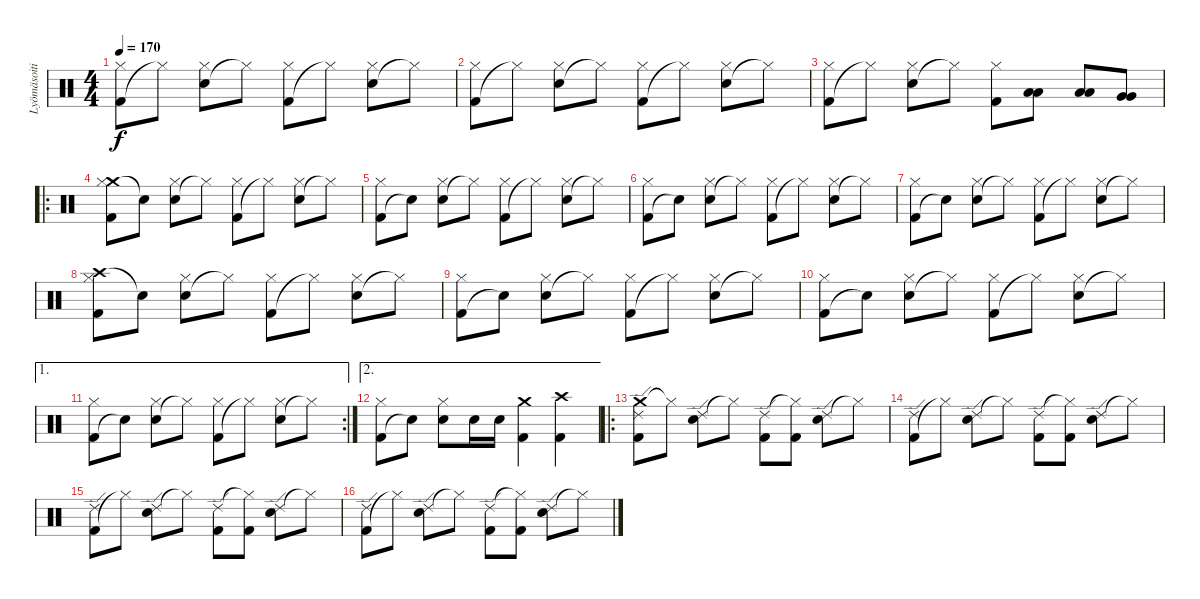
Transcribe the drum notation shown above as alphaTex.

\track ("Lyömäsoitin" "Lyömäsoiti") {instrument percussion}
\staff {score}
\articulation defaults
\ts (4 4)
\tempo 170
\clef neutral
\ks c
("Kick (hit) 2" "Hi-Hat (closed)").8{dy f} "Hi-Hat (closed)"{t}.8 ("Electric Snare (hit)" "Hi-Hat (closed)").8 "Hi-Hat (closed)"{t}.8 ("Kick (hit) 2" "Hi-Hat (closed)").8 "Hi-Hat (closed)"{t}.8 ("Electric Snare (hit)" "Hi-Hat (closed)").8 "Hi-Hat (closed)"{t}.8 |
("Kick (hit) 2" "Hi-Hat (closed)").8 "Hi-Hat (closed)"{t}.8 ("Electric Snare (hit)" "Hi-Hat (closed)").8 "Hi-Hat (closed)"{t}.8 ("Kick (hit) 2" "Hi-Hat (closed)").8 "Hi-Hat (closed)"{t}.8 ("Electric Snare (hit)" "Hi-Hat (closed)").8 "Hi-Hat (closed)"{t}.8 |
("Kick (hit) 2" "Hi-Hat (closed)").8 "Hi-Hat (closed)"{t}.8 ("Electric Snare (hit)" "Hi-Hat (closed)").8 "Hi-Hat (closed)"{t}.8 ("Kick (hit) 2" "Hi-Hat (closed)").8 ("Low Tom (hit)" "Low Tom (hit)").8 ("Low Tom (hit)" "Low Tom (hit)").8 ("Very Low Tom (hit)" "Very Low Tom (hit)").8 |
\ro
("Crash medium (hit)" "Kick (hit) 2" "Hi-Hat (closed)").8 "Snare (hit)"{t}.8 ("Electric Snare (hit)" "Hi-Hat (closed)").8 "Hi-Hat (closed)"{t}.8 ("Kick (hit) 2" "Hi-Hat (closed)").8 "Hi-Hat (closed)"{t}.8 ("Electric Snare (hit)" "Hi-Hat (closed)").8 "Hi-Hat (closed)"{t}.8 |
("Kick (hit) 2" "Hi-Hat (closed)").8 "Snare (hit)"{t}.8 ("Electric Snare (hit)" "Hi-Hat (closed)").8 "Hi-Hat (closed)"{t}.8 ("Kick (hit) 2" "Hi-Hat (closed)").8 "Hi-Hat (closed)"{t}.8 ("Electric Snare (hit)" "Hi-Hat (closed)").8 "Hi-Hat (closed)"{t}.8 |
("Kick (hit) 2" "Hi-Hat (closed)").8 "Snare (hit)"{t}.8 ("Electric Snare (hit)" "Hi-Hat (closed)").8 "Hi-Hat (closed)"{t}.8 ("Kick (hit) 2" "Hi-Hat (closed)").8 "Hi-Hat (closed)"{t}.8 ("Electric Snare (hit)" "Hi-Hat (closed)").8 "Hi-Hat (closed)"{t}.8 |
("Kick (hit) 2" "Hi-Hat (closed)").8 "Snare (hit)"{t}.8 ("Electric Snare (hit)" "Hi-Hat (closed)").8 "Hi-Hat (closed)"{t}.8 ("Kick (hit) 2" "Hi-Hat (closed)").8 "Hi-Hat (closed)"{t}.8 ("Electric Snare (hit)" "Hi-Hat (closed)").8 "Hi-Hat (closed)"{t}.8 |
("Crash high (hit)" "Kick (hit) 2" "Hi-Hat (closed)").8 "Snare (hit)"{t}.8 ("Electric Snare (hit)" "Hi-Hat (closed)").8 "Hi-Hat (closed)"{t}.8 ("Kick (hit) 2" "Hi-Hat (closed)").8 "Hi-Hat (closed)"{t}.8 ("Electric Snare (hit)" "Hi-Hat (closed)").8 "Hi-Hat (closed)"{t}.8 |
("Kick (hit) 2" "Hi-Hat (closed)").8 "Snare (hit)"{t}.8 ("Electric Snare (hit)" "Hi-Hat (closed)").8 "Hi-Hat (closed)"{t}.8 ("Kick (hit) 2" "Hi-Hat (closed)").8 "Hi-Hat (closed)"{t}.8 ("Electric Snare (hit)" "Hi-Hat (closed)").8 "Hi-Hat (closed)"{t}.8 |
("Kick (hit) 2" "Hi-Hat (closed)").8 "Snare (hit)"{t}.8 ("Electric Snare (hit)" "Hi-Hat (closed)").8 "Hi-Hat (closed)"{t}.8 ("Kick (hit) 2" "Hi-Hat (closed)").8 "Hi-Hat (closed)"{t}.8 ("Electric Snare (hit)" "Hi-Hat (closed)").8 "Hi-Hat (closed)"{t}.8 |
\ae 1
\rc 2
("Kick (hit) 2" "Hi-Hat (closed)").8 "Snare (hit)"{t}.8 ("Electric Snare (hit)" "Hi-Hat (closed)").8 "Hi-Hat (closed)"{t}.8 ("Kick (hit) 2" "Hi-Hat (closed)").8 "Hi-Hat (closed)"{t}.8 ("Electric Snare (hit)" "Hi-Hat (closed)").8 "Hi-Hat (closed)"{t}.8 |
\ae 2
("Kick (hit) 2" "Hi-Hat (closed)").8 "Snare (hit)"{t}.8 ("Electric Snare (hit)" "Hi-Hat (closed)").8 "Electric Snare (hit)".16 "Electric Snare (hit)".16 ("Crash medium (hit)" "Kick (hit) 2").4 ("Crash high (hit)" "Kick (hit) 2").4 |
\ro
("Crash medium (hit)" "Kick (hit) 2" "Ride (edge) 2").8 "Hi-Hat (closed)"{t}.8 ("Electric Snare (hit)" "Ride (edge) 2").8 "Hi-Hat (closed)"{t}.8 ("Kick (hit) 2" "Ride (edge) 2").8 ("Kick (hit) 2" "Hi-Hat (closed)"{t}).8 ("Electric Snare (hit)" "Ride (edge) 2").8 "Hi-Hat (closed)"{t}.8 |
("Kick (hit) 2" "Ride (edge) 2").8 "Hi-Hat (closed)"{t}.8 ("Electric Snare (hit)" "Ride (edge) 2").8 "Hi-Hat (closed)"{t}.8 ("Kick (hit) 2" "Ride (edge) 2").8 ("Kick (hit) 2" "Hi-Hat (closed)"{t}).8 ("Electric Snare (hit)" "Ride (edge) 2").8 "Hi-Hat (closed)"{t}.8 |
("Kick (hit) 2" "Ride (edge) 2").8 "Hi-Hat (closed)"{t}.8 ("Electric Snare (hit)" "Ride (edge) 2").8 "Hi-Hat (closed)"{t}.8 ("Kick (hit) 2" "Ride (edge) 2").8 ("Kick (hit) 2" "Hi-Hat (closed)"{t}).8 ("Electric Snare (hit)" "Ride (edge) 2").8 "Hi-Hat (closed)"{t}.8 |
("Kick (hit) 2" "Ride (edge) 2").8 "Hi-Hat (closed)"{t}.8 ("Electric Snare (hit)" "Ride (edge) 2").8 "Hi-Hat (closed)"{t}.8 ("Kick (hit) 2" "Ride (edge) 2").8 ("Kick (hit) 2" "Hi-Hat (closed)"{t}).8 ("Electric Snare (hit)" "Ride (edge) 2").8 "Hi-Hat (closed)"{t}.8
